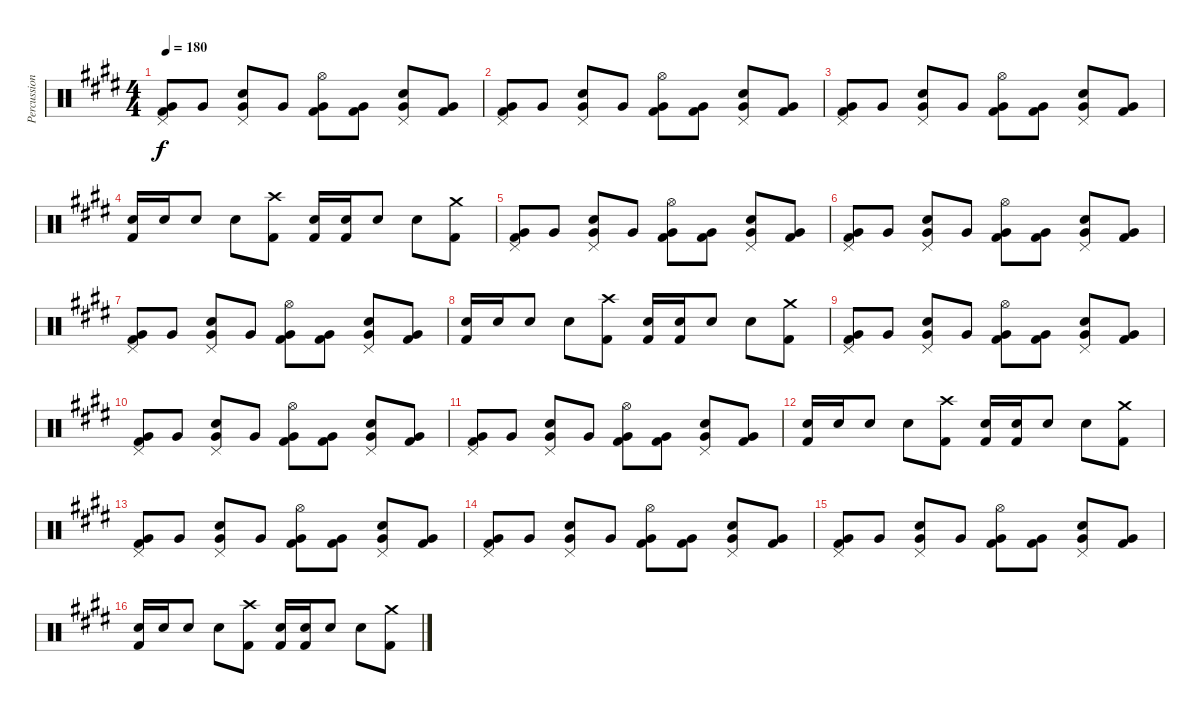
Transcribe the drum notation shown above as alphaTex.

\track ("Percussion" "Percussion") {instrument percussion}
\staff {score}
\articulation defaults
\ts (4 4)
\tempo 180
\clef neutral
\ks e
("Pedal Hi-Hat (hit)" "Very Low Tom (hit)" "Kick (hit) 2").8{dy f} "Very Low Tom (hit)".8 ("Pedal Hi-Hat (hit)" "Electric Snare (hit)" "Very Low Tom (hit)").8 "Very Low Tom (hit)".8 ("Hi-Hat (open)" "Very Low Tom (hit)" "Kick (hit) 2").8 ("Very Low Tom (hit)" "Kick (hit) 2").8 ("Pedal Hi-Hat (hit)" "Electric Snare (hit)" "Very Low Tom (hit)").8 ("Very Low Tom (hit)" "Kick (hit) 2").8 |
("Pedal Hi-Hat (hit)" "Very Low Tom (hit)" "Kick (hit) 2").8 "Very Low Tom (hit)".8 ("Pedal Hi-Hat (hit)" "Electric Snare (hit)" "Very Low Tom (hit)").8 "Very Low Tom (hit)".8 ("Hi-Hat (open)" "Very Low Tom (hit)" "Kick (hit) 2").8 ("Very Low Tom (hit)" "Kick (hit) 2").8 ("Pedal Hi-Hat (hit)" "Electric Snare (hit)" "Very Low Tom (hit)").8 ("Very Low Tom (hit)" "Kick (hit) 2").8 |
("Pedal Hi-Hat (hit)" "Very Low Tom (hit)" "Kick (hit) 2").8 "Very Low Tom (hit)".8 ("Pedal Hi-Hat (hit)" "Electric Snare (hit)" "Very Low Tom (hit)").8 "Very Low Tom (hit)".8 ("Hi-Hat (open)" "Very Low Tom (hit)" "Kick (hit) 2").8 ("Very Low Tom (hit)" "Kick (hit) 2").8 ("Pedal Hi-Hat (hit)" "Electric Snare (hit)" "Very Low Tom (hit)").8 ("Very Low Tom (hit)" "Kick (hit) 2").8 |
("Electric Snare (hit)" "Kick (hit) 2").16 "Electric Snare (hit)".16 "Electric Snare (hit)".8 "Electric Snare (hit)".8 ("Crash high (hit)" "Kick (hit) 2").8 ("Electric Snare (hit)" "Kick (hit) 2").16 ("Electric Snare (hit)" "Kick (hit) 2").16 "Electric Snare (hit)".8 "Electric Snare (hit)".8 ("Crash medium (hit)" "Kick (hit) 2").8 |
("Pedal Hi-Hat (hit)" "Very Low Tom (hit)" "Kick (hit) 2").8 "Very Low Tom (hit)".8 ("Pedal Hi-Hat (hit)" "Electric Snare (hit)" "Very Low Tom (hit)").8 "Very Low Tom (hit)".8 ("Hi-Hat (open)" "Very Low Tom (hit)" "Kick (hit) 2").8 ("Very Low Tom (hit)" "Kick (hit) 2").8 ("Pedal Hi-Hat (hit)" "Electric Snare (hit)" "Very Low Tom (hit)").8 ("Very Low Tom (hit)" "Kick (hit) 2").8 |
("Pedal Hi-Hat (hit)" "Very Low Tom (hit)" "Kick (hit) 2").8 "Very Low Tom (hit)".8 ("Pedal Hi-Hat (hit)" "Electric Snare (hit)" "Very Low Tom (hit)").8 "Very Low Tom (hit)".8 ("Hi-Hat (open)" "Very Low Tom (hit)" "Kick (hit) 2").8 ("Very Low Tom (hit)" "Kick (hit) 2").8 ("Pedal Hi-Hat (hit)" "Electric Snare (hit)" "Very Low Tom (hit)").8 ("Very Low Tom (hit)" "Kick (hit) 2").8 |
("Pedal Hi-Hat (hit)" "Very Low Tom (hit)" "Kick (hit) 2").8 "Very Low Tom (hit)".8 ("Pedal Hi-Hat (hit)" "Electric Snare (hit)" "Very Low Tom (hit)").8 "Very Low Tom (hit)".8 ("Hi-Hat (open)" "Very Low Tom (hit)" "Kick (hit) 2").8 ("Very Low Tom (hit)" "Kick (hit) 2").8 ("Pedal Hi-Hat (hit)" "Electric Snare (hit)" "Very Low Tom (hit)").8 ("Very Low Tom (hit)" "Kick (hit) 2").8 |
("Electric Snare (hit)" "Kick (hit) 2").16 "Electric Snare (hit)".16 "Electric Snare (hit)".8 "Electric Snare (hit)".8 ("Crash high (hit)" "Kick (hit) 2").8 ("Electric Snare (hit)" "Kick (hit) 2").16 ("Electric Snare (hit)" "Kick (hit) 2").16 "Electric Snare (hit)".8 "Electric Snare (hit)".8 ("Crash medium (hit)" "Kick (hit) 2").8 |
("Pedal Hi-Hat (hit)" "Very Low Tom (hit)" "Kick (hit) 2").8 "Very Low Tom (hit)".8 ("Pedal Hi-Hat (hit)" "Electric Snare (hit)" "Very Low Tom (hit)").8 "Very Low Tom (hit)".8 ("Hi-Hat (open)" "Very Low Tom (hit)" "Kick (hit) 2").8 ("Very Low Tom (hit)" "Kick (hit) 2").8 ("Pedal Hi-Hat (hit)" "Electric Snare (hit)" "Very Low Tom (hit)").8 ("Very Low Tom (hit)" "Kick (hit) 2").8 |
("Pedal Hi-Hat (hit)" "Very Low Tom (hit)" "Kick (hit) 2").8 "Very Low Tom (hit)".8 ("Pedal Hi-Hat (hit)" "Electric Snare (hit)" "Very Low Tom (hit)").8 "Very Low Tom (hit)".8 ("Hi-Hat (open)" "Very Low Tom (hit)" "Kick (hit) 2").8 ("Very Low Tom (hit)" "Kick (hit) 2").8 ("Pedal Hi-Hat (hit)" "Electric Snare (hit)" "Very Low Tom (hit)").8 ("Very Low Tom (hit)" "Kick (hit) 2").8 |
("Pedal Hi-Hat (hit)" "Very Low Tom (hit)" "Kick (hit) 2").8 "Very Low Tom (hit)".8 ("Pedal Hi-Hat (hit)" "Electric Snare (hit)" "Very Low Tom (hit)").8 "Very Low Tom (hit)".8 ("Hi-Hat (open)" "Very Low Tom (hit)" "Kick (hit) 2").8 ("Very Low Tom (hit)" "Kick (hit) 2").8 ("Pedal Hi-Hat (hit)" "Electric Snare (hit)" "Very Low Tom (hit)").8 ("Very Low Tom (hit)" "Kick (hit) 2").8 |
("Electric Snare (hit)" "Kick (hit) 2").16 "Electric Snare (hit)".16 "Electric Snare (hit)".8 "Electric Snare (hit)".8 ("Crash high (hit)" "Kick (hit) 2").8 ("Electric Snare (hit)" "Kick (hit) 2").16 ("Electric Snare (hit)" "Kick (hit) 2").16 "Electric Snare (hit)".8 "Electric Snare (hit)".8 ("Crash medium (hit)" "Kick (hit) 2").8 |
("Pedal Hi-Hat (hit)" "Very Low Tom (hit)" "Kick (hit) 2").8 "Very Low Tom (hit)".8 ("Pedal Hi-Hat (hit)" "Electric Snare (hit)" "Very Low Tom (hit)").8 "Very Low Tom (hit)".8 ("Hi-Hat (open)" "Very Low Tom (hit)" "Kick (hit) 2").8 ("Very Low Tom (hit)" "Kick (hit) 2").8 ("Pedal Hi-Hat (hit)" "Electric Snare (hit)" "Very Low Tom (hit)").8 ("Very Low Tom (hit)" "Kick (hit) 2").8 |
("Pedal Hi-Hat (hit)" "Very Low Tom (hit)" "Kick (hit) 2").8 "Very Low Tom (hit)".8 ("Pedal Hi-Hat (hit)" "Electric Snare (hit)" "Very Low Tom (hit)").8 "Very Low Tom (hit)".8 ("Hi-Hat (open)" "Very Low Tom (hit)" "Kick (hit) 2").8 ("Very Low Tom (hit)" "Kick (hit) 2").8 ("Pedal Hi-Hat (hit)" "Electric Snare (hit)" "Very Low Tom (hit)").8 ("Very Low Tom (hit)" "Kick (hit) 2").8 |
("Pedal Hi-Hat (hit)" "Very Low Tom (hit)" "Kick (hit) 2").8 "Very Low Tom (hit)".8 ("Pedal Hi-Hat (hit)" "Electric Snare (hit)" "Very Low Tom (hit)").8 "Very Low Tom (hit)".8 ("Hi-Hat (open)" "Very Low Tom (hit)" "Kick (hit) 2").8 ("Very Low Tom (hit)" "Kick (hit) 2").8 ("Pedal Hi-Hat (hit)" "Electric Snare (hit)" "Very Low Tom (hit)").8 ("Very Low Tom (hit)" "Kick (hit) 2").8 |
("Electric Snare (hit)" "Kick (hit) 2").16 "Electric Snare (hit)".16 "Electric Snare (hit)".8 "Electric Snare (hit)".8 ("Crash high (hit)" "Kick (hit) 2").8 ("Electric Snare (hit)" "Kick (hit) 2").16 ("Electric Snare (hit)" "Kick (hit) 2").16 "Electric Snare (hit)".8 "Electric Snare (hit)".8 ("Crash medium (hit)" "Kick (hit) 2").8
